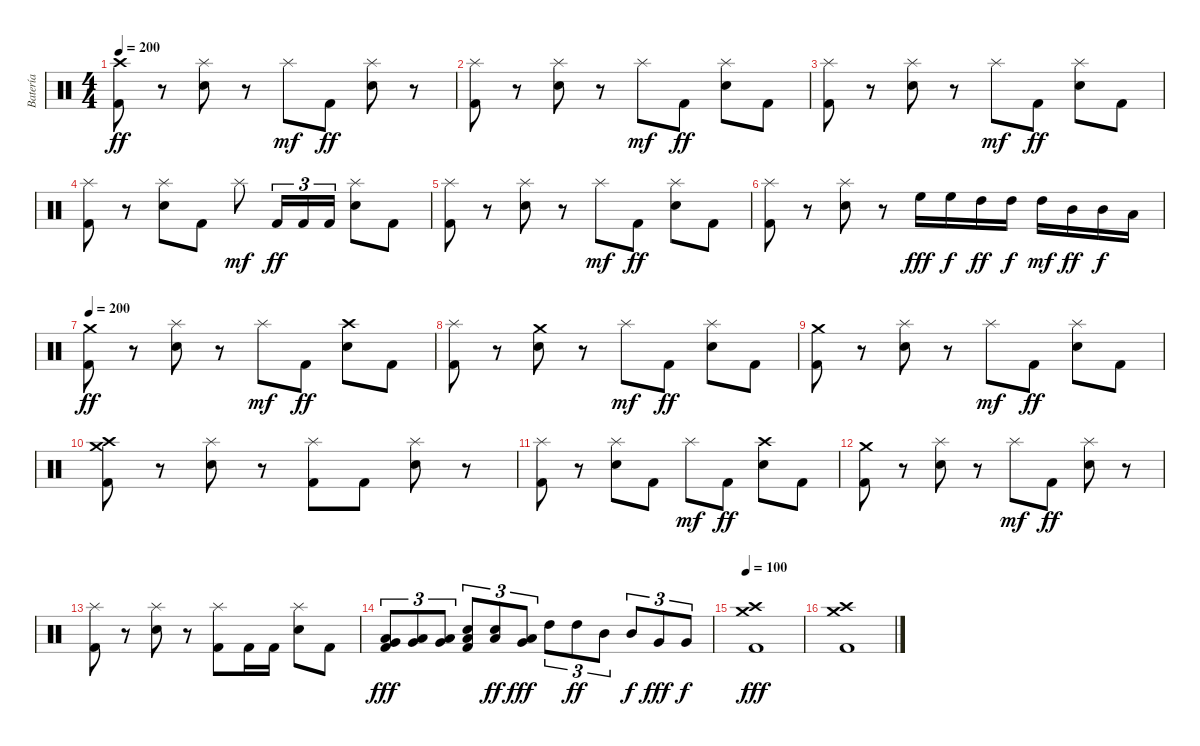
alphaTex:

\track ("Batería" "Batería") {instrument percussion}
\staff {score}
\articulation defaults
\ts (4 4)
\tempo 200
\clef neutral
\ks c
("Crash high (hit)" "Kick (hit) 2").8{dy ff} r.8 ("Splash (hit)" "Electric Snare (hit)").8 r.8 "Splash (hit)".8{dy mf} "Kick (hit) 2".8{dy ff} ("Splash (hit)" "Electric Snare (hit)").8 r.8 |
("Splash (hit)" "Kick (hit) 2").8 r.8 ("Splash (hit)" "Electric Snare (hit)").8 r.8 "Splash (hit)".8{dy mf} "Kick (hit) 2".8{dy ff} ("Splash (hit)" "Electric Snare (hit)").8 "Kick (hit) 2".8 |
("Splash (hit)" "Kick (hit) 2").8 r.8 ("Splash (hit)" "Electric Snare (hit)").8 r.8 "Splash (hit)".8{dy mf} "Kick (hit) 2".8{dy ff} ("Splash (hit)" "Electric Snare (hit)").8 "Kick (hit) 2".8 |
("Splash (hit)" "Kick (hit) 2").8 r.8 ("Splash (hit)" "Electric Snare (hit)").8 "Kick (hit) 2".8 "Splash (hit)".8{dy mf} "Kick (hit) 2".16{tu (3 2) dy ff} "Kick (hit) 2".16{tu (3 2)} "Kick (hit) 2".16{tu (3 2)} ("Splash (hit)" "Electric Snare (hit)").8 "Kick (hit) 2".8 |
("Splash (hit)" "Kick (hit) 2").8 r.8 ("Splash (hit)" "Electric Snare (hit)").8 r.8 "Splash (hit)".8{dy mf} "Kick (hit) 2".8{dy ff} ("Splash (hit)" "Electric Snare (hit)").8 "Kick (hit) 2".8 |
("Splash (hit)" "Kick (hit) 2").8 r.8 ("Splash (hit)" "Electric Snare (hit)").8 r.8 "High Floor Tom (hit)".16{dy fff} "High Floor Tom (hit)".16{dy f} "High Tom (hit)".16{dy ff} "High Tom (hit)".16{dy f} "High Tom (hit)".16{dy mf} "Mid Tom (hit)".16{dy ff} "Mid Tom (hit)".16{dy f} "Low Tom (hit)".16 |
\tempo 200
("Crash medium (hit)" "Kick (hit) 2").8{dy ff} r.8 ("Splash (hit)" "Electric Snare (hit)").8 r.8 "Splash (hit)".8{dy mf} "Kick (hit) 2".8{dy ff} ("Crash high (hit)" "Electric Snare (hit)").8 "Kick (hit) 2".8 |
("Splash (hit)" "Kick (hit) 2").8 r.8 ("Crash medium (hit)" "Electric Snare (hit)").8 r.8 "Splash (hit)".8{dy mf} "Kick (hit) 2".8{dy ff} ("Splash (hit)" "Electric Snare (hit)").8 "Kick (hit) 2".8 |
("Crash medium (hit)" "Kick (hit) 2").8 r.8 ("Splash (hit)" "Electric Snare (hit)").8 r.8 "Splash (hit)".8{dy mf} "Kick (hit) 2".8{dy ff} ("Splash (hit)" "Electric Snare (hit)").8 "Kick (hit) 2".8 |
("Crash high (hit)" "Crash medium (hit)" "Kick (hit) 2").8 r.8 ("Splash (hit)" "Electric Snare (hit)").8 r.8 ("Splash (hit)" "Kick (hit) 2").8 "Kick (hit) 2".8 ("Splash (hit)" "Electric Snare (hit)").8 r.8 |
("Splash (hit)" "Kick (hit) 2").8 r.8 ("Splash (hit)" "Electric Snare (hit)").8 "Kick (hit) 2".8 "Splash (hit)".8{dy mf} "Kick (hit) 2".8{dy ff} ("Crash high (hit)" "Electric Snare (hit)").8 "Kick (hit) 2".8 |
("Crash medium (hit)" "Kick (hit) 2").8 r.8 ("Splash (hit)" "Electric Snare (hit)").8 r.8 "Splash (hit)".8{dy mf} "Kick (hit) 2".8{dy ff} ("Splash (hit)" "Electric Snare (hit)").8 r.8 |
("Splash (hit)" "Kick (hit) 2").8 r.8 ("Splash (hit)" "Electric Snare (hit)").8 r.8 ("Splash (hit)" "Kick (hit) 2").8 "Kick (hit) 2".16 "Kick (hit) 2".16 ("Splash (hit)" "Electric Snare (hit)").8 "Kick (hit) 2".8 |
("Low Tom (hit)" "Very Low Tom (hit)" "Kick (hit) 2").8{tu (3 2) dy fff} ("Low Tom (hit)" "Very Low Tom (hit)").8{tu (3 2)} ("Low Tom (hit)" "Very Low Tom (hit)").8{tu (3 2)} ("Low Tom (hit)" "Electric Snare (hit)" "Kick (hit) 2").8{tu (3 2)} ("Low Tom (hit)" "Electric Snare (hit)").8{tu (3 2) dy ff} ("Low Tom (hit)" "Very Low Tom (hit)").8{tu (3 2) dy fff} "High Tom (hit)".8{tu (3 2)} "High Tom (hit)".8{tu (3 2) dy ff} "Mid Tom (hit)".8{tu (3 2)} "Mid Tom (hit)".8{tu (3 2) dy f} "Very Low Tom (hit)".8{tu (3 2) dy fff} "Very Low Tom (hit)".8{tu (3 2) dy f} |
\tempo 100
("Crash medium (hit)" "Crash high (hit)" "Kick (hit) 2").1{dy fff} |
("Crash medium (hit)" "Crash high (hit)" "Kick (hit) 2").1
